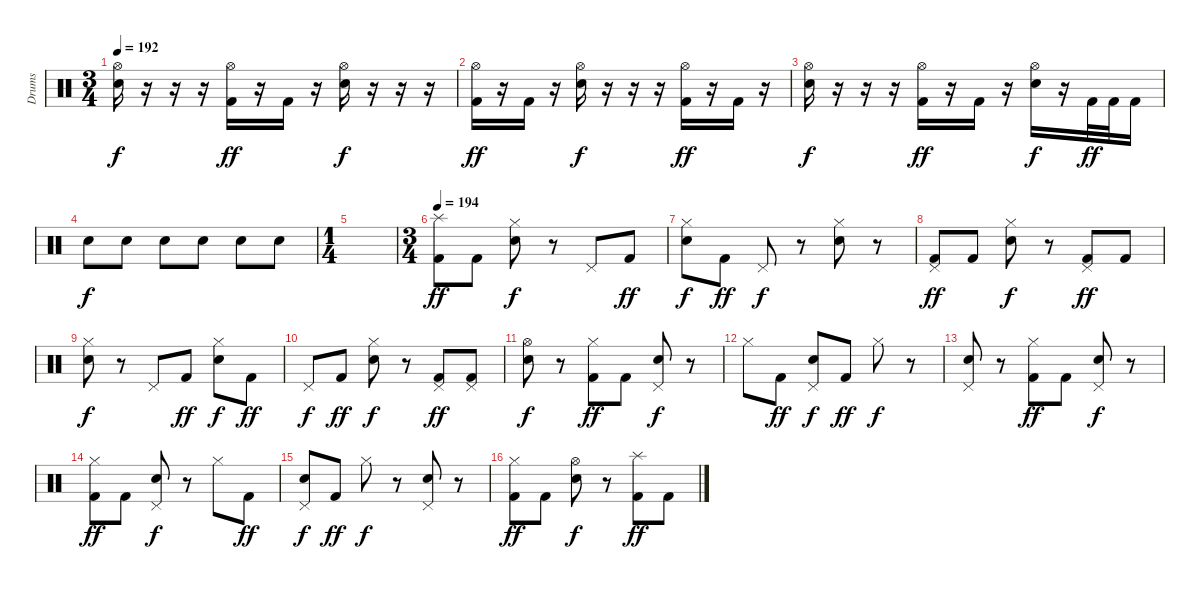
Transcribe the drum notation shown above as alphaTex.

\track ("Drums" "Drums") {instrument percussion}
\staff {score}
\articulation defaults
\ts (3 4)
\tempo 192
\clef neutral
\ks c
("Hi-Hat (open)" "Electric Snare (hit)").16{dy f} r.16 r.16 r.16 ("Hi-Hat (open)" "Kick (hit) 2").16{dy ff} r.16 "Kick (hit) 2".16 r.16 ("Hi-Hat (open)" "Electric Snare (hit)").16{dy f} r.16 r.16 r.16 |
("Hi-Hat (open)" "Kick (hit) 2").16{dy ff} r.16 "Kick (hit) 2".16 r.16 ("Hi-Hat (open)" "Electric Snare (hit)").16{dy f} r.16 r.16 r.16 ("Hi-Hat (open)" "Kick (hit) 2").16{dy ff} r.16 "Kick (hit) 2".16 r.16 |
("Hi-Hat (open)" "Electric Snare (hit)").16{dy f} r.16 r.16 r.16 ("Hi-Hat (open)" "Kick (hit) 2").16{dy ff} r.16 "Kick (hit) 2".16 r.16 ("Hi-Hat (open)" "Electric Snare (hit)").16{dy f} r.16 "Kick (hit) 2".32{dy ff} "Kick (hit) 2".32 "Kick (hit) 2".16 |
"Electric Snare (hit)".8{dy f} "Electric Snare (hit)".8 "Electric Snare (hit)".8 "Electric Snare (hit)".8 "Electric Snare (hit)".8 "Electric Snare (hit)".8 |
\ts (1 4)
|
\ts (3 4)
\tempo 194
("Splash (hit)" "Kick (hit) 2").8{dy ff} "Kick (hit) 2".8 ("Hi-Hat (closed)" "Electric Snare (hit)").8{dy f} r.8 "Pedal Hi-Hat (hit)".8 "Kick (hit) 2".8{dy ff} |
("Hi-Hat (closed)" "Electric Snare (hit)").8{dy f} "Kick (hit) 2".8{dy ff} "Pedal Hi-Hat (hit)".8{dy f} r.8 ("Hi-Hat (closed)" "Electric Snare (hit)").8 r.8 |
("Pedal Hi-Hat (hit)" "Kick (hit) 2").8{dy ff} "Kick (hit) 2".8 ("Hi-Hat (closed)" "Electric Snare (hit)").8{dy f} r.8 ("Pedal Hi-Hat (hit)" "Kick (hit) 2").8{dy ff} "Kick (hit) 2".8 |
("Hi-Hat (closed)" "Electric Snare (hit)").8{dy f} r.8 "Pedal Hi-Hat (hit)".8 "Kick (hit) 2".8{dy ff} ("Hi-Hat (closed)" "Electric Snare (hit)").8{dy f} "Kick (hit) 2".8{dy ff} |
"Pedal Hi-Hat (hit)".8{dy f} "Kick (hit) 2".8{dy ff} ("Hi-Hat (closed)" "Electric Snare (hit)").8{dy f} r.8 ("Pedal Hi-Hat (hit)" "Kick (hit) 2").8{dy ff} ("Pedal Hi-Hat (hit)" "Kick (hit) 2").8 |
("Hi-Hat (open)" "Electric Snare (hit)").8{dy f} r.8 ("Hi-Hat (closed)" "Kick (hit) 2").8{dy ff} "Kick (hit) 2".8 ("Pedal Hi-Hat (hit)" "Electric Snare (hit)").8{dy f} r.8 |
"Hi-Hat (closed)".8 "Kick (hit) 2".8{dy ff} ("Pedal Hi-Hat (hit)" "Electric Snare (hit)").8{dy f} "Kick (hit) 2".8{dy ff} "Hi-Hat (closed)".8{dy f} r.8 |
("Pedal Hi-Hat (hit)" "Electric Snare (hit)").8 r.8 ("Hi-Hat (closed)" "Kick (hit) 2").8{dy ff} "Kick (hit) 2".8 ("Pedal Hi-Hat (hit)" "Electric Snare (hit)").8{dy f} r.8 |
("Hi-Hat (closed)" "Kick (hit) 2").8{dy ff} "Kick (hit) 2".8 ("Pedal Hi-Hat (hit)" "Electric Snare (hit)").8{dy f} r.8 "Hi-Hat (closed)".8 "Kick (hit) 2".8{dy ff} |
("Pedal Hi-Hat (hit)" "Electric Snare (hit)").8{dy f} "Kick (hit) 2".8{dy ff} "Hi-Hat (closed)".8{dy f} r.8 ("Pedal Hi-Hat (hit)" "Electric Snare (hit)").8 r.8 |
("Hi-Hat (closed)" "Kick (hit) 2").8{dy ff} "Kick (hit) 2".8 ("Hi-Hat (open)" "Electric Snare (hit)").8{dy f} r.8 ("Splash (hit)" "Kick (hit) 2").8{dy ff} "Kick (hit) 2".8
